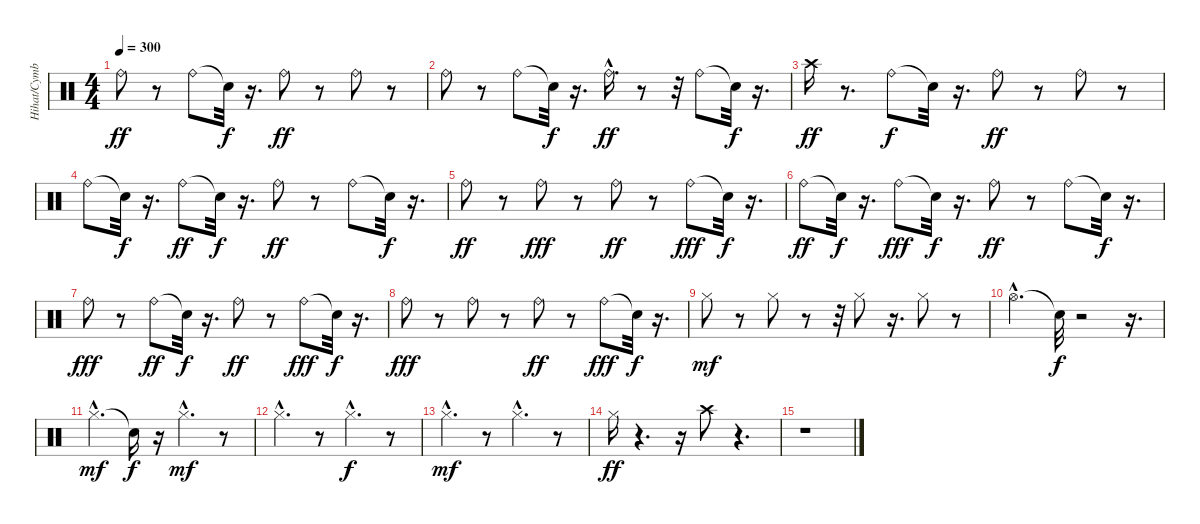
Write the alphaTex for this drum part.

\track ("Hihat/Cymbals/Tambourine" "Hihat/Cymb") {instrument percussion}
\staff {score}
\articulation defaults
\ts (4 4)
\tempo 300
\clef neutral
\ks c "Ride (bell)".8{dy ff}
r.8 "Ride (bell)".8 "Snare (hit)"{t}.32{dy f} r.16{d} "Ride (bell)".8{dy ff} r.8 "Ride (bell)".8 r.8 |
"Ride (bell)".8 r.8 "Ride (bell)".8 "Snare (hit)"{t}.32{dy f} r.16{d} "Ride (bell)"{hac}.16{d dy ff} r.8 r.32 "Ride (bell)".8 "Snare (hit)"{t}.32{dy f} r.16{d} |
"Crash high (hit)".16{dy ff} r.8{d} "Ride (bell)".8{dy f} "Snare (hit)"{t}.32 r.16{d} "Ride (bell)".8{dy ff} r.8 "Ride (bell)".8 r.8 |
"Ride (bell)".8 "Snare (hit)"{t}.32{dy f} r.16{d} "Ride (bell)".8{dy ff} "Snare (hit)"{t}.32{dy f} r.16{d} "Ride (bell)".8{dy ff} r.8 "Ride (bell)".8 "Snare (hit)"{t}.32{dy f} r.16{d} |
"Ride (bell)".8{dy ff} r.8 "Ride (bell)".8{dy fff} r.8 "Ride (bell)".8{dy ff} r.8 "Ride (bell)".8{dy fff} "Snare (hit)"{t}.32{dy f} r.16{d} |
"Ride (bell)".8{dy ff} "Snare (hit)"{t}.32{dy f} r.16{d} "Ride (bell)".8{dy fff} "Snare (hit)"{t}.32{dy f} r.16{d} "Ride (bell)".8{dy ff} r.8 "Ride (bell)".8 "Snare (hit)"{t}.32{dy f} r.16{d} |
"Ride (bell)".8{dy fff} r.8 "Ride (bell)".8{dy ff} "Snare (hit)"{t}.32{dy f} r.16{d} "Ride (bell)".8{dy ff} r.8 "Ride (bell)".8{dy fff} "Snare (hit)"{t}.32{dy f} r.16{d} |
"Ride (bell)".8{dy fff} r.8 "Ride (bell)".8 r.8 "Ride (bell)".8{dy ff} r.8 "Ride (bell)".8{dy fff} "Snare (hit)"{t}.32{dy f} r.16{d} |
"Hi-Hat (closed)".8{dy mf} r.8 "Hi-Hat (closed)".8 r.8 r.32 "Hi-Hat (closed)".8 r.16{d} "Hi-Hat (closed)".8 r.8 |
"Hi-Hat (open)"{hac}.4{d} "Snare (hit)"{t}.32{dy f} r.2 r.16{d} |
"Hi-Hat (closed)"{hac}.4{d dy mf} "Snare (hit)"{t}.16{dy f} r.16 "Hi-Hat (closed)"{hac}.4{d dy mf} r.8 |
"Hi-Hat (closed)"{hac}.4{d} r.8 "Hi-Hat (closed)"{hac}.4{d dy f} r.8 |
"Hi-Hat (closed)"{hac}.4{d dy mf} r.8 "Hi-Hat (closed)"{hac}.4{d} r.8 |
"Hi-Hat (closed)".16{dy ff} r.4{d} r.16 "Crash high (hit)".8 r.4{d} |
r.1
